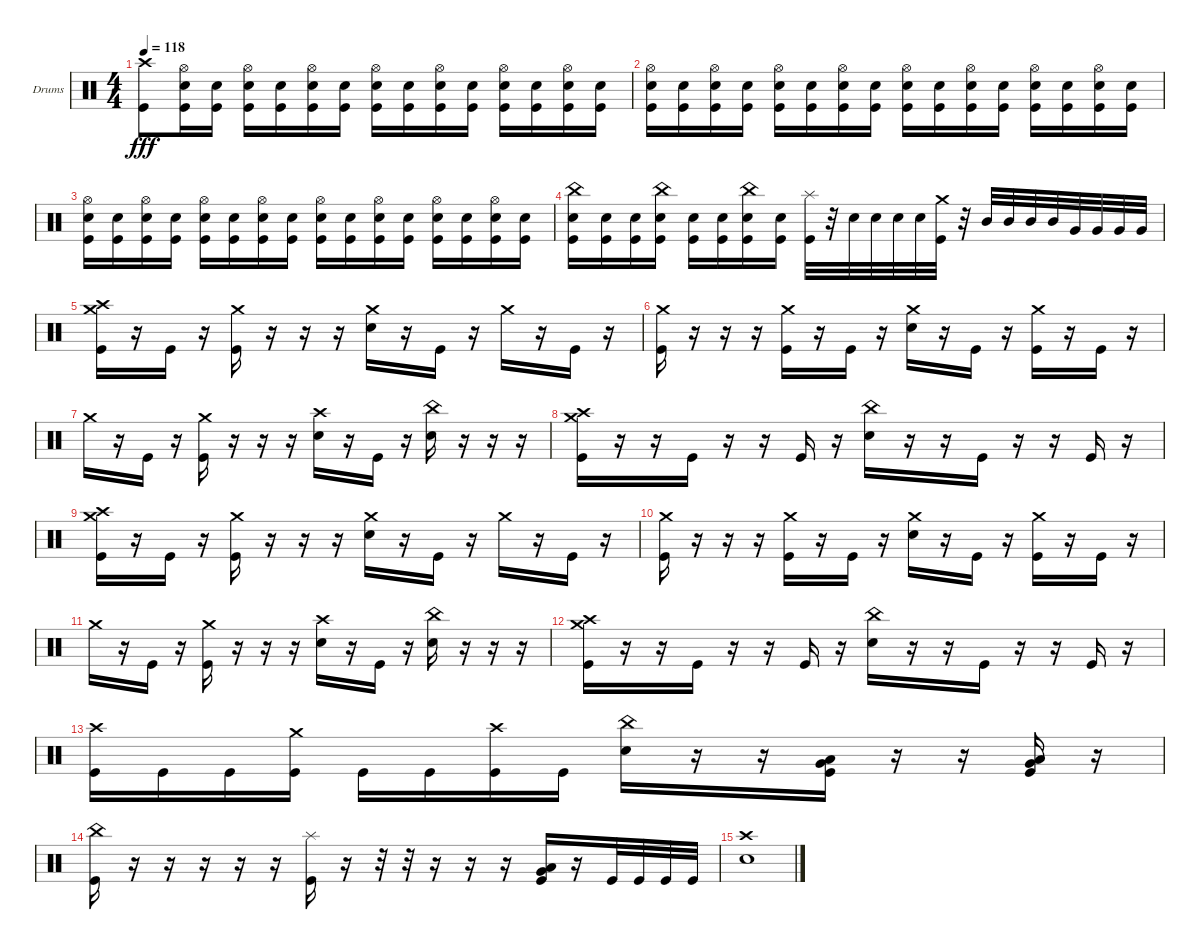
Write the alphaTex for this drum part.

\bracketExtendMode groupsimilarinstruments
\firstSystemTrackNameOrientation horizontal
\otherSystemsTrackNameOrientation horizontal
\track ("Drumkit" "Drums") {instrument percussion}
\staff {score}
\articulation defaults
\ts (4 4)
\tempo 118
\clef neutral
\ks c
("Kick (hit)" "Crash high (hit)").8{dy fff} ("Snare (hit) 2" "Kick (hit)" "Hi-Hat (open)").16 ("Snare (hit) 2" "Kick (hit)").16 ("Snare (hit) 2" "Kick (hit)" "Hi-Hat (open)").16 ("Snare (hit) 2" "Kick (hit)").16 ("Snare (hit) 2" "Kick (hit)" "Hi-Hat (open)").16 ("Snare (hit) 2" "Kick (hit)").16 ("Snare (hit) 2" "Kick (hit)" "Hi-Hat (open)").16 ("Snare (hit) 2" "Kick (hit)").16 ("Snare (hit) 2" "Kick (hit)" "Hi-Hat (open)").16 ("Snare (hit) 2" "Kick (hit)").16 ("Snare (hit) 2" "Kick (hit)" "Hi-Hat (open)").16 ("Snare (hit) 2" "Kick (hit)").16 ("Snare (hit) 2" "Kick (hit)" "Hi-Hat (open)").16 ("Snare (hit) 2" "Kick (hit)").16 |
("Snare (hit) 2" "Kick (hit)" "Hi-Hat (open)").16 ("Snare (hit) 2" "Kick (hit)").16 ("Snare (hit) 2" "Kick (hit)" "Hi-Hat (open)").16 ("Snare (hit) 2" "Kick (hit)").16 ("Snare (hit) 2" "Kick (hit)" "Hi-Hat (open)").16 ("Snare (hit) 2" "Kick (hit)").16 ("Snare (hit) 2" "Kick (hit)" "Hi-Hat (open)").16 ("Snare (hit) 2" "Kick (hit)").16 ("Snare (hit) 2" "Kick (hit)" "Hi-Hat (open)").16 ("Snare (hit) 2" "Kick (hit)").16 ("Snare (hit) 2" "Kick (hit)" "Hi-Hat (open)").16 ("Snare (hit) 2" "Kick (hit)").16 ("Snare (hit) 2" "Kick (hit)" "Hi-Hat (open)").16 ("Snare (hit) 2" "Kick (hit)").16 ("Snare (hit) 2" "Kick (hit)" "Hi-Hat (open)").16 ("Snare (hit) 2" "Kick (hit)").16 |
("Snare (hit) 2" "Kick (hit)" "Hi-Hat (open)").16 ("Snare (hit) 2" "Kick (hit)").16 ("Snare (hit) 2" "Kick (hit)" "Hi-Hat (open)").16 ("Snare (hit) 2" "Kick (hit)").16 ("Snare (hit) 2" "Kick (hit)" "Hi-Hat (open)").16 ("Snare (hit) 2" "Kick (hit)").16 ("Snare (hit) 2" "Kick (hit)" "Hi-Hat (open)").16 ("Snare (hit) 2" "Kick (hit)").16 ("Snare (hit) 2" "Kick (hit)" "Hi-Hat (open)").16 ("Snare (hit) 2" "Kick (hit)").16 ("Snare (hit) 2" "Kick (hit)" "Hi-Hat (open)").16 ("Snare (hit) 2" "Kick (hit)").16 ("Snare (hit) 2" "Kick (hit)" "Hi-Hat (open)").16 ("Snare (hit) 2" "Kick (hit)").16 ("Snare (hit) 2" "Kick (hit)" "Hi-Hat (open)").16 ("Snare (hit) 2" "Kick (hit)").16 |
("Snare (hit) 2" "Kick (hit)" "China (hit)").16 ("Snare (hit) 2" "Kick (hit)").16 ("Snare (hit) 2" "Kick (hit)").16 ("Snare (hit) 2" "Kick (hit)" "China (hit)").16 ("Snare (hit) 2" "Kick (hit)").16 ("Snare (hit) 2" "Kick (hit)").16 ("Snare (hit) 2" "Kick (hit)" "China (hit)").16 ("Snare (hit) 2" "Kick (hit)").16 ("Kick (hit)" "Splash (hit)").32 r.32 "Snare (hit) 2".32 "Snare (hit) 2".32 "Snare (hit) 2".32 "Snare (hit) 2".32 ("Kick (hit)" "Crash medium (hit)").32 r.32 "Mid Tom (hit)".32 "Mid Tom (hit)".32 "Mid Tom (hit)".32 "Mid Tom (hit)".32 "Very Low Tom (hit)".32 "Very Low Tom (hit)".32 "Very Low Tom (hit)".32 "Very Low Tom (hit)".32 |
("Crash medium (hit)" "Crash high (hit)" "Kick (hit)").16 r.16 "Kick (hit)".16 r.16 ("Kick (hit)" "Crash medium (hit)").16 r.16 r.16 r.16 ("Snare (hit) 2" "Crash medium (hit)").16 r.16 "Kick (hit)".16 r.16 "Crash medium (hit)".16 r.16 "Kick (hit)".16 r.16 |
("Kick (hit)" "Crash medium (hit)").16 r.16 r.16 r.16 ("Kick (hit)" "Crash medium (hit)").16 r.16 "Kick (hit)".16 r.16 ("Snare (hit) 2" "Crash medium (hit)").16 r.16 "Kick (hit)".16 r.16 ("Kick (hit)" "Crash medium (hit)").16 r.16 "Kick (hit)".16 r.16 |
"Crash medium (hit)".16 r.16 "Kick (hit)".16 r.16 ("Kick (hit)" "Crash medium (hit)").16 r.16 r.16 r.16 ("Snare (hit) 2" "Crash high (hit)").16 r.16 "Kick (hit)".16 r.16 ("China (hit)" "Snare (hit) 2").16 r.16 r.16 r.16 |
("Crash medium (hit)" "Crash high (hit)" "Kick (hit)").16 r.16 r.16 "Kick (hit)".16 r.16 r.16 "Kick (hit)".16 r.16 ("Snare (hit) 2" "China (hit)").16 r.16 r.16 "Kick (hit)".16 r.16 r.16 "Kick (hit)".16 r.16 |
("Crash medium (hit)" "Crash high (hit)" "Kick (hit)").16 r.16 "Kick (hit)".16 r.16 ("Kick (hit)" "Crash medium (hit)").16 r.16 r.16 r.16 ("Snare (hit) 2" "Crash medium (hit)").16 r.16 "Kick (hit)".16 r.16 "Crash medium (hit)".16 r.16 "Kick (hit)".16 r.16 |
("Kick (hit)" "Crash medium (hit)").16 r.16 r.16 r.16 ("Kick (hit)" "Crash medium (hit)").16 r.16 "Kick (hit)".16 r.16 ("Snare (hit) 2" "Crash medium (hit)").16 r.16 "Kick (hit)".16 r.16 ("Kick (hit)" "Crash medium (hit)").16 r.16 "Kick (hit)".16 r.16 |
"Crash medium (hit)".16 r.16 "Kick (hit)".16 r.16 ("Kick (hit)" "Crash medium (hit)").16 r.16 r.16 r.16 ("Snare (hit) 2" "Crash high (hit)").16 r.16 "Kick (hit)".16 r.16 ("China (hit)" "Snare (hit) 2").16 r.16 r.16 r.16 |
("Crash medium (hit)" "Crash high (hit)" "Kick (hit)").16 r.16 r.16 "Kick (hit)".16 r.16 r.16 "Kick (hit)".16 r.16 ("Snare (hit) 2" "China (hit)").16 r.16 r.16 "Kick (hit)".16 r.16 r.16 "Kick (hit)".16 r.16 |
("Crash high (hit)" "Kick (hit)").16 "Kick (hit)".16 "Kick (hit)".16 ("Kick (hit)" "Crash medium (hit)").16 "Kick (hit)".16 "Kick (hit)".16 ("Kick (hit)" "Crash high (hit)").16 "Kick (hit)".16 ("Snare (hit) 2" "China (hit)").16 r.16 r.16 ("Kick (hit)" "Very Low Tom (hit)" "Low Tom (hit)").16 r.16 r.16 ("Kick (hit)" "Low Tom (hit)" "Very Low Tom (hit)").16 r.16 |
("Kick (hit)" "China (hit)").16 r.16 r.16 r.16 r.16 r.16 ("Kick (hit)" "Splash (hit)").16 r.16 r.32 r.32 r.16 r.16 r.16 ("Very Low Tom (hit)" "Low Tom (hit)" "Kick (hit)").16 r.16 "Kick (hit)".32 "Kick (hit)".32 "Kick (hit)".32 "Kick (hit)".32 |
("Crash high (hit)" "Snare (hit) 2").1
